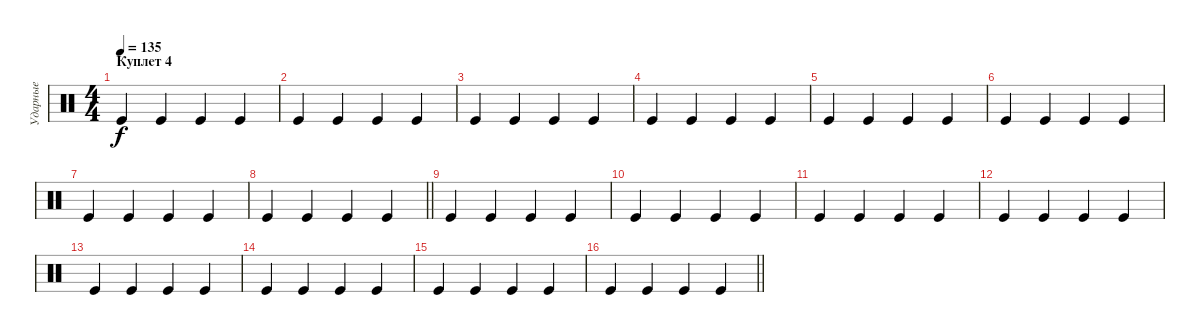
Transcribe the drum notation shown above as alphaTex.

\track ("Ударные" "Ударные") {instrument percussion}
\staff {score}
\articulation defaults
\ts (4 4)
\section ("" "Куплет 4")
\tempo 135
\clef neutral
\ks c "Kick (hit)".4{dy f} "Kick (hit)".4 "Kick (hit)".4 "Kick (hit)".4
|
"Kick (hit)".4 "Kick (hit)".4 "Kick (hit)".4 "Kick (hit)".4 |
"Kick (hit)".4 "Kick (hit)".4 "Kick (hit)".4 "Kick (hit)".4 |
"Kick (hit)".4 "Kick (hit)".4 "Kick (hit)".4 "Kick (hit)".4 |
"Kick (hit)".4 "Kick (hit)".4 "Kick (hit)".4 "Kick (hit)".4 |
"Kick (hit)".4 "Kick (hit)".4 "Kick (hit)".4 "Kick (hit)".4 |
"Kick (hit)".4 "Kick (hit)".4 "Kick (hit)".4 "Kick (hit)".4 |
\barLineRight lightlight "Kick (hit)".4 "Kick (hit)".4 "Kick (hit)".4 "Kick (hit)".4
|
"Kick (hit)".4 "Kick (hit)".4 "Kick (hit)".4 "Kick (hit)".4 |
"Kick (hit)".4 "Kick (hit)".4 "Kick (hit)".4 "Kick (hit)".4 |
"Kick (hit)".4 "Kick (hit)".4 "Kick (hit)".4 "Kick (hit)".4 |
"Kick (hit)".4 "Kick (hit)".4 "Kick (hit)".4 "Kick (hit)".4 |
"Kick (hit)".4 "Kick (hit)".4 "Kick (hit)".4 "Kick (hit)".4 |
"Kick (hit)".4 "Kick (hit)".4 "Kick (hit)".4 "Kick (hit)".4 |
"Kick (hit)".4 "Kick (hit)".4 "Kick (hit)".4 "Kick (hit)".4 |
\barLineRight lightlight "Kick (hit)".4 "Kick (hit)".4 "Kick (hit)".4 "Kick (hit)".4
